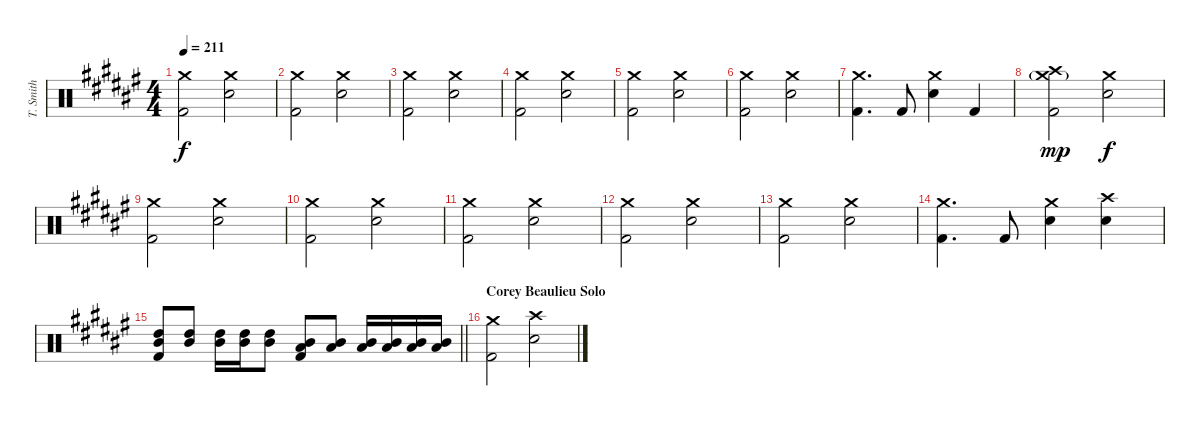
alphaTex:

\track ("T. Smith" "T. Smith") {instrument percussion}
\staff {score}
\articulation defaults
\ts (4 4)
\tempo 211
\clef neutral
\ks d#minor
("Crash medium (hit)" "Kick (hit) 2").2{dy f} ("Crash medium (hit)" "Electric Snare (hit)").2 |
("Crash medium (hit)" "Kick (hit) 2").2 ("Crash medium (hit)" "Electric Snare (hit)").2 |
("Crash medium (hit)" "Kick (hit) 2").2 ("Crash medium (hit)" "Electric Snare (hit)").2 |
("Crash medium (hit)" "Kick (hit) 2").2 ("Crash medium (hit)" "Electric Snare (hit)").2 |
("Crash medium (hit)" "Kick (hit) 2").2 ("Crash medium (hit)" "Electric Snare (hit)").2 |
("Crash medium (hit)" "Kick (hit) 2").2 ("Crash medium (hit)" "Electric Snare (hit)").2 |
("Crash medium (hit)" "Kick (hit) 2").4{d} "Kick (hit) 2".8 ("Crash medium (hit)" "Electric Snare (hit)").4 "Kick (hit) 2".4 |
("Crash medium (hit)"{g} "Crash high (hit)" "Kick (hit) 2").2{dy mp} ("Crash medium (hit)" "Electric Snare (hit)").2{dy f} |
("Crash medium (hit)" "Kick (hit) 2").2 ("Crash medium (hit)" "Electric Snare (hit)").2 |
("Crash medium (hit)" "Kick (hit) 2").2 ("Crash medium (hit)" "Electric Snare (hit)").2 |
("Crash medium (hit)" "Kick (hit) 2").2 ("Crash medium (hit)" "Electric Snare (hit)").2 |
("Crash medium (hit)" "Kick (hit) 2").2 ("Crash medium (hit)" "Electric Snare (hit)").2 |
("Crash medium (hit)" "Kick (hit) 2").2 ("Crash medium (hit)" "Electric Snare (hit)").2 |
("Crash medium (hit)" "Kick (hit) 2").4{d} "Kick (hit) 2".8 ("Crash medium (hit)" "Electric Snare (hit)").4 ("Crash high (hit)" "Electric Snare (hit)").4 |
\barLineRight lightlight
("High Tom (hit)" "Mid Tom (hit)" "Kick (hit) 2").8 ("High Tom (hit)" "Mid Tom (hit)").8 ("High Tom (hit)" "Mid Tom (hit)").16 ("High Tom (hit)" "Mid Tom (hit)").16 ("High Tom (hit)" "Mid Tom (hit)").8 ("Mid Tom (hit)" "Low Tom (hit)" "Kick (hit) 2").8 ("Mid Tom (hit)" "Low Tom (hit)").8 ("Mid Tom (hit)" "Low Tom (hit)").16 ("Mid Tom (hit)" "Low Tom (hit)").16 ("Mid Tom (hit)" "Low Tom (hit)").16 ("Mid Tom (hit)" "Low Tom (hit)").16 |
\section ("" "Corey Beaulieu Solo")
("Crash medium (hit)" "Kick (hit) 2").2 ("Crash high (hit)" "Electric Snare (hit)").2
